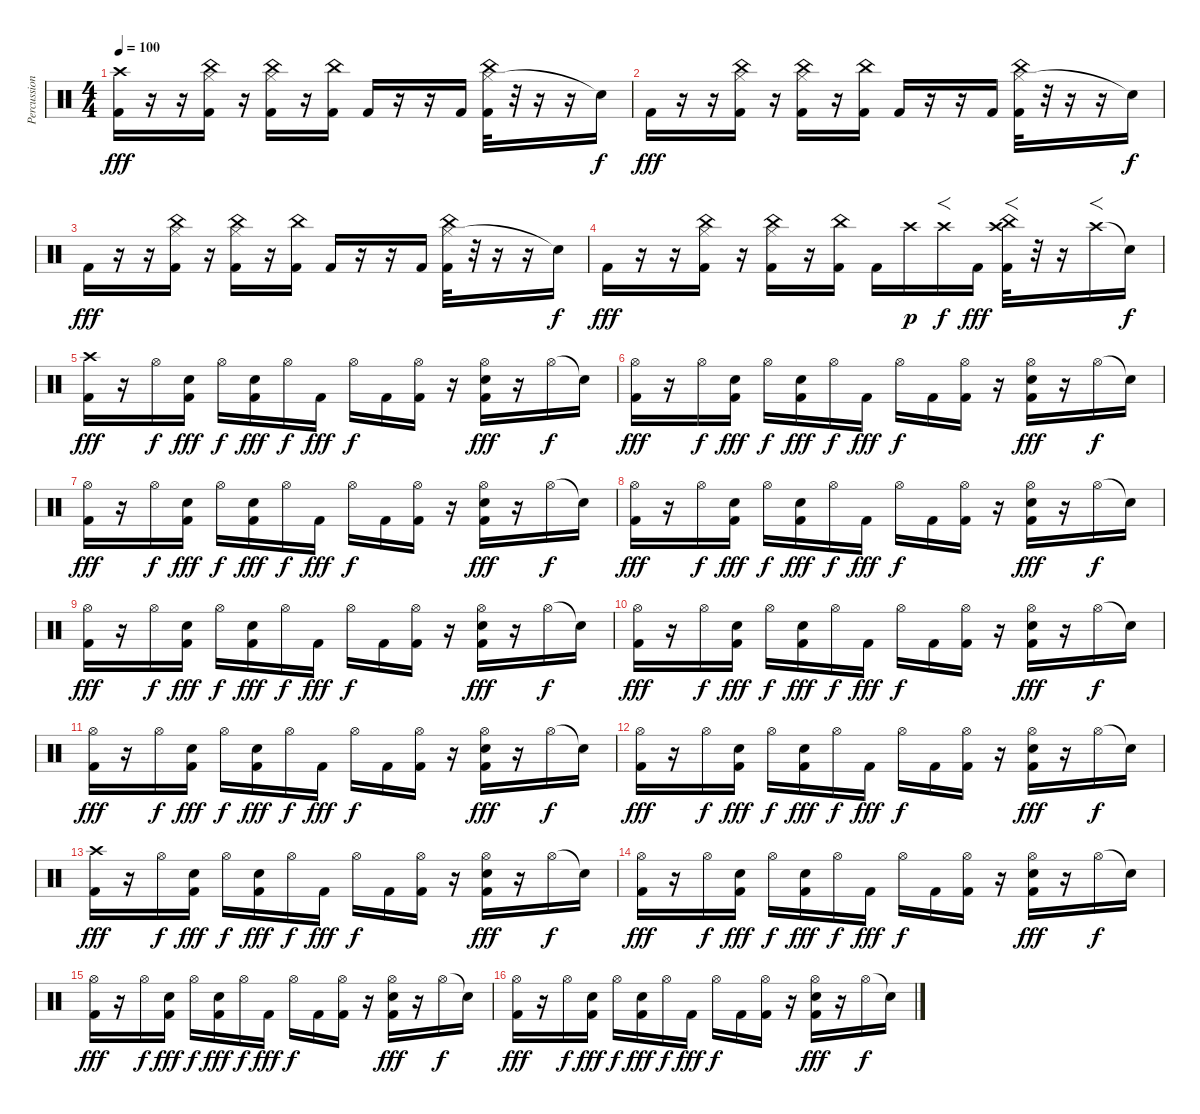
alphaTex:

\track ("Percussion" "Percussion") {instrument percussion}
\staff {score}
\articulation defaults
\ts (4 4)
\tempo 100
\clef neutral
\ks c
("Crash high (hit)" "Kick (hit) 2").16{dy fff} r.16 r.16 ("Hi-Hat (closed)" "China (hit)" "Kick (hit) 2").16 r.16 ("Hi-Hat (closed)" "China (hit)" "Kick (hit) 2").16 r.16 ("China (hit)" "Kick (hit) 2").16 "Kick (hit) 2".16 r.16 r.16 "Kick (hit) 2".16 ("Hi-Hat (closed)" "China (hit)" "Kick (hit) 2").32 r.32 r.16 r.16 "Snare (hit)"{t}.16{dy f} |
"Kick (hit) 2".16{dy fff} r.16 r.16 ("Hi-Hat (closed)" "China (hit)" "Kick (hit) 2").16 r.16 ("Hi-Hat (closed)" "China (hit)" "Kick (hit) 2").16 r.16 ("China (hit)" "Kick (hit) 2").16 "Kick (hit) 2".16 r.16 r.16 "Kick (hit) 2".16 ("Hi-Hat (closed)" "China (hit)" "Kick (hit) 2").32 r.32 r.16 r.16 "Snare (hit)"{t}.16{dy f} |
"Kick (hit) 2".16{dy fff} r.16 r.16 ("Hi-Hat (closed)" "China (hit)" "Kick (hit) 2").16 r.16 ("Hi-Hat (closed)" "China (hit)" "Kick (hit) 2").16 r.16 ("China (hit)" "Kick (hit) 2").16 "Kick (hit) 2".16 r.16 r.16 "Kick (hit) 2".16 ("Hi-Hat (closed)" "China (hit)" "Kick (hit) 2").32 r.32 r.16 r.16 "Snare (hit)"{t}.16{dy f} |
"Kick (hit) 2".16{dy fff} r.16 r.16 ("Hi-Hat (closed)" "China (hit)" "Kick (hit) 2").16 r.16 ("Hi-Hat (closed)" "China (hit)" "Kick (hit) 2").16 r.16 ("China (hit)" "Kick (hit) 2").16 "Kick (hit) 2".16 "Crash high (hit)".16{dy p} "Crash high (hit)".16{f dy f} "Kick (hit) 2".16{dy fff} ("Crash high (hit)" "China (hit)" "Kick (hit) 2").32{f} r.32 r.16 "Crash high (hit)".16{f} "Snare (hit)"{t}.16{dy f} |
("Crash high (hit)" "Kick (hit) 2").16{dy fff volume 16} r.16 "Hi-Hat (open)".16{dy f} ("Snare (hit) 2" "Kick (hit) 2").16{dy fff} "Hi-Hat (open)".16{dy f} ("Snare (hit) 2" "Kick (hit) 2").16{dy fff} "Hi-Hat (open)".16{dy f} "Kick (hit) 2".16{dy fff} "Hi-Hat (open)".16{dy f} "Kick (hit) 2".16 ("Hi-Hat (open)" "Kick (hit) 2").16 r.16 ("Hi-Hat (open)" "Snare (hit) 2" "Kick (hit) 2").16{dy fff} r.16 "Hi-Hat (open)".16{dy f} "Snare (hit)"{t}.16 |
("Hi-Hat (open)" "Kick (hit) 2").16{dy fff} r.16 "Hi-Hat (open)".16{dy f} ("Snare (hit) 2" "Kick (hit) 2").16{dy fff} "Hi-Hat (open)".16{dy f} ("Snare (hit) 2" "Kick (hit) 2").16{dy fff} "Hi-Hat (open)".16{dy f} "Kick (hit) 2".16{dy fff} "Hi-Hat (open)".16{dy f} "Kick (hit) 2".16 ("Hi-Hat (open)" "Kick (hit) 2").16 r.16 ("Hi-Hat (open)" "Snare (hit) 2" "Kick (hit) 2").16{dy fff} r.16 "Hi-Hat (open)".16{dy f} "Snare (hit)"{t}.16 |
("Hi-Hat (open)" "Kick (hit) 2").16{dy fff} r.16 "Hi-Hat (open)".16{dy f} ("Snare (hit) 2" "Kick (hit) 2").16{dy fff} "Hi-Hat (open)".16{dy f} ("Snare (hit) 2" "Kick (hit) 2").16{dy fff} "Hi-Hat (open)".16{dy f} "Kick (hit) 2".16{dy fff} "Hi-Hat (open)".16{dy f} "Kick (hit) 2".16 ("Hi-Hat (open)" "Kick (hit) 2").16 r.16 ("Hi-Hat (open)" "Snare (hit) 2" "Kick (hit) 2").16{dy fff} r.16 "Hi-Hat (open)".16{dy f} "Snare (hit)"{t}.16 |
("Hi-Hat (open)" "Kick (hit) 2").16{dy fff} r.16 "Hi-Hat (open)".16{dy f} ("Snare (hit) 2" "Kick (hit) 2").16{dy fff} "Hi-Hat (open)".16{dy f} ("Snare (hit) 2" "Kick (hit) 2").16{dy fff} "Hi-Hat (open)".16{dy f} "Kick (hit) 2".16{dy fff} "Hi-Hat (open)".16{dy f} "Kick (hit) 2".16 ("Hi-Hat (open)" "Kick (hit) 2").16 r.16 ("Hi-Hat (open)" "Snare (hit) 2" "Kick (hit) 2").16{dy fff} r.16 "Hi-Hat (open)".16{dy f} "Snare (hit)"{t}.16 |
("Hi-Hat (open)" "Kick (hit) 2").16{dy fff} r.16 "Hi-Hat (open)".16{dy f} ("Snare (hit) 2" "Kick (hit) 2").16{dy fff} "Hi-Hat (open)".16{dy f} ("Snare (hit) 2" "Kick (hit) 2").16{dy fff} "Hi-Hat (open)".16{dy f} "Kick (hit) 2".16{dy fff} "Hi-Hat (open)".16{dy f} "Kick (hit) 2".16 ("Hi-Hat (open)" "Kick (hit) 2").16 r.16 ("Hi-Hat (open)" "Snare (hit) 2" "Kick (hit) 2").16{dy fff} r.16 "Hi-Hat (open)".16{dy f} "Snare (hit)"{t}.16 |
("Hi-Hat (open)" "Kick (hit) 2").16{dy fff} r.16 "Hi-Hat (open)".16{dy f} ("Snare (hit) 2" "Kick (hit) 2").16{dy fff} "Hi-Hat (open)".16{dy f} ("Snare (hit) 2" "Kick (hit) 2").16{dy fff} "Hi-Hat (open)".16{dy f} "Kick (hit) 2".16{dy fff} "Hi-Hat (open)".16{dy f} "Kick (hit) 2".16 ("Hi-Hat (open)" "Kick (hit) 2").16 r.16 ("Hi-Hat (open)" "Snare (hit) 2" "Kick (hit) 2").16{dy fff} r.16 "Hi-Hat (open)".16{dy f} "Snare (hit)"{t}.16 |
("Hi-Hat (open)" "Kick (hit) 2").16{dy fff} r.16 "Hi-Hat (open)".16{dy f} ("Snare (hit) 2" "Kick (hit) 2").16{dy fff} "Hi-Hat (open)".16{dy f} ("Snare (hit) 2" "Kick (hit) 2").16{dy fff} "Hi-Hat (open)".16{dy f} "Kick (hit) 2".16{dy fff} "Hi-Hat (open)".16{dy f} "Kick (hit) 2".16 ("Hi-Hat (open)" "Kick (hit) 2").16 r.16 ("Hi-Hat (open)" "Snare (hit) 2" "Kick (hit) 2").16{dy fff} r.16 "Hi-Hat (open)".16{dy f} "Snare (hit)"{t}.16 |
("Hi-Hat (open)" "Kick (hit) 2").16{dy fff} r.16 "Hi-Hat (open)".16{dy f} ("Snare (hit) 2" "Kick (hit) 2").16{dy fff} "Hi-Hat (open)".16{dy f} ("Snare (hit) 2" "Kick (hit) 2").16{dy fff} "Hi-Hat (open)".16{dy f} "Kick (hit) 2".16{dy fff} "Hi-Hat (open)".16{dy f} "Kick (hit) 2".16 ("Hi-Hat (open)" "Kick (hit) 2").16 r.16 ("Hi-Hat (open)" "Snare (hit) 2" "Kick (hit) 2").16{dy fff} r.16 "Hi-Hat (open)".16{dy f} "Snare (hit)"{t}.16 |
("Crash high (hit)" "Kick (hit) 2").16{dy fff volume 16} r.16 "Hi-Hat (open)".16{dy f} ("Snare (hit) 2" "Kick (hit) 2").16{dy fff} "Hi-Hat (open)".16{dy f} ("Snare (hit) 2" "Kick (hit) 2").16{dy fff} "Hi-Hat (open)".16{dy f} "Kick (hit) 2".16{dy fff} "Hi-Hat (open)".16{dy f} "Kick (hit) 2".16 ("Hi-Hat (open)" "Kick (hit) 2").16 r.16 ("Hi-Hat (open)" "Snare (hit) 2" "Kick (hit) 2").16{dy fff} r.16 "Hi-Hat (open)".16{dy f} "Snare (hit)"{t}.16 |
("Hi-Hat (open)" "Kick (hit) 2").16{dy fff} r.16 "Hi-Hat (open)".16{dy f} ("Snare (hit) 2" "Kick (hit) 2").16{dy fff} "Hi-Hat (open)".16{dy f} ("Snare (hit) 2" "Kick (hit) 2").16{dy fff} "Hi-Hat (open)".16{dy f} "Kick (hit) 2".16{dy fff} "Hi-Hat (open)".16{dy f} "Kick (hit) 2".16 ("Hi-Hat (open)" "Kick (hit) 2").16 r.16 ("Hi-Hat (open)" "Snare (hit) 2" "Kick (hit) 2").16{dy fff} r.16 "Hi-Hat (open)".16{dy f} "Snare (hit)"{t}.16 |
("Hi-Hat (open)" "Kick (hit) 2").16{dy fff} r.16 "Hi-Hat (open)".16{dy f} ("Snare (hit) 2" "Kick (hit) 2").16{dy fff} "Hi-Hat (open)".16{dy f} ("Snare (hit) 2" "Kick (hit) 2").16{dy fff} "Hi-Hat (open)".16{dy f} "Kick (hit) 2".16{dy fff} "Hi-Hat (open)".16{dy f} "Kick (hit) 2".16 ("Hi-Hat (open)" "Kick (hit) 2").16 r.16 ("Hi-Hat (open)" "Snare (hit) 2" "Kick (hit) 2").16{dy fff} r.16 "Hi-Hat (open)".16{dy f} "Snare (hit)"{t}.16 |
("Hi-Hat (open)" "Kick (hit) 2").16{dy fff} r.16 "Hi-Hat (open)".16{dy f} ("Snare (hit) 2" "Kick (hit) 2").16{dy fff} "Hi-Hat (open)".16{dy f} ("Snare (hit) 2" "Kick (hit) 2").16{dy fff} "Hi-Hat (open)".16{dy f} "Kick (hit) 2".16{dy fff} "Hi-Hat (open)".16{dy f} "Kick (hit) 2".16 ("Hi-Hat (open)" "Kick (hit) 2").16 r.16 ("Hi-Hat (open)" "Snare (hit) 2" "Kick (hit) 2").16{dy fff} r.16 "Hi-Hat (open)".16{dy f} "Snare (hit)"{t}.16
